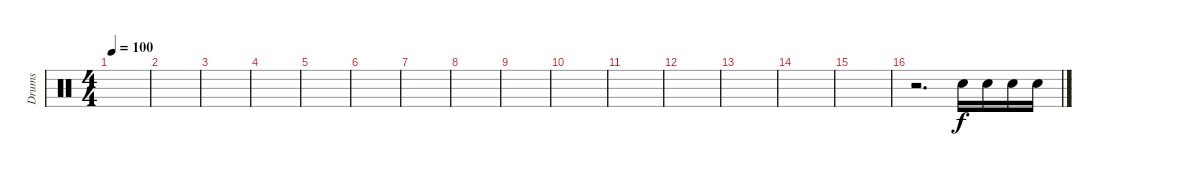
\track ("Drums" "Drums") {instrument percussion}
\staff {score}
\articulation defaults
\ts (4 4)
\tempo 100
\clef neutral
\ks c
|
|
|
|
|
|
|
|
|
|
|
|
|
|
|
r.2{d} "Electric Snare (hit)".16 "Electric Snare (hit)".16 "Electric Snare (hit)".16 "Electric Snare (hit)".16
